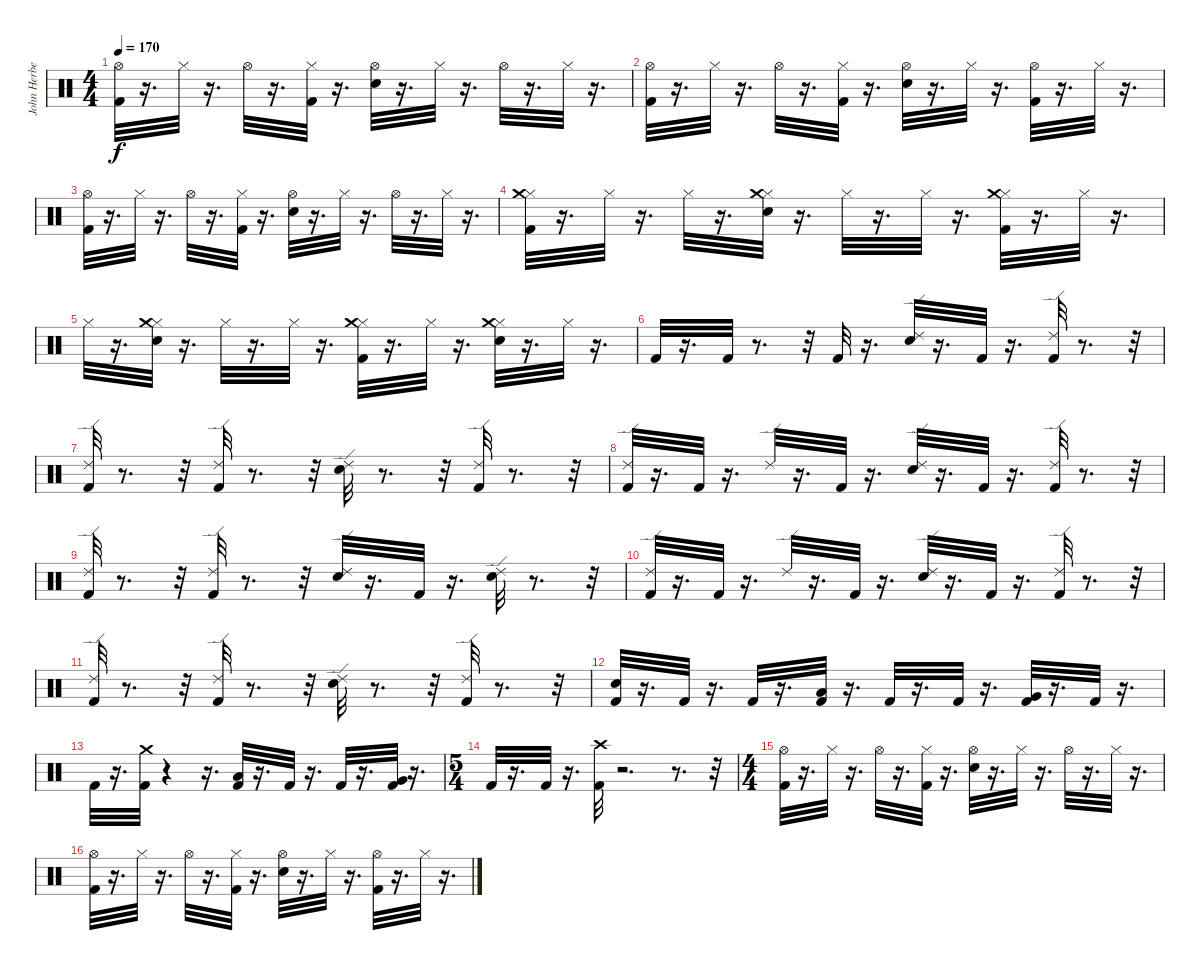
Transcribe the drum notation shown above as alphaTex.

\track ("John Herbert" "John Herbe") {instrument percussion}
\staff {score}
\articulation defaults
\ts (4 4)
\tempo 170
\clef neutral
\ks c
("Kick (hit) 2" "Hi-Hat (open)").32{dy f} r.16{d} "Hi-Hat (closed)".32 r.16{d} "Hi-Hat (open)".32 r.16{d} ("Kick (hit) 2" "Hi-Hat (closed)").32 r.16{d} ("Snare (hit) 2" "Hi-Hat (open)").32 r.16{d} "Hi-Hat (closed)".32 r.16{d} "Hi-Hat (open)".32 r.16{d} "Hi-Hat (closed)".32 r.16{d} |
("Hi-Hat (open)" "Kick (hit) 2").32 r.16{d} "Hi-Hat (closed)".32 r.16{d} "Hi-Hat (open)".32 r.16{d} ("Hi-Hat (closed)" "Kick (hit) 2").32 r.16{d} ("Snare (hit) 2" "Hi-Hat (open)").32 r.16{d} "Hi-Hat (closed)".32 r.16{d} ("Kick (hit) 2" "Hi-Hat (open)").32 r.16{d} "Hi-Hat (closed)".32 r.16{d} |
("Kick (hit) 2" "Hi-Hat (open)").32 r.16{d} "Hi-Hat (closed)".32 r.16{d} "Hi-Hat (open)".32 r.16{d} ("Kick (hit) 2" "Hi-Hat (closed)").32 r.16{d} ("Snare (hit) 2" "Hi-Hat (open)").32 r.16{d} "Hi-Hat (closed)".32 r.16{d} "Hi-Hat (open)".32 r.16{d} "Hi-Hat (closed)".32 r.16{d} |
("Hi-Hat (closed)" "Kick (hit) 2" "Crash medium (hit)").32 r.16{d} "Hi-Hat (closed)".32 r.16{d} "Hi-Hat (closed)".32 r.16{d} ("Hi-Hat (closed)" "Snare (hit) 2" "Crash medium (hit)").32 r.16{d} "Hi-Hat (closed)".32 r.16{d} "Hi-Hat (closed)".32 r.16{d} ("Hi-Hat (closed)" "Kick (hit) 2" "Crash medium (hit)").32 r.16{d} "Hi-Hat (closed)".32 r.16{d} |
"Hi-Hat (closed)".32 r.16{d} ("Hi-Hat (closed)" "Crash medium (hit)" "Snare (hit) 2").32 r.16{d} "Hi-Hat (closed)".32 r.16{d} "Hi-Hat (closed)".32 r.16{d} ("Hi-Hat (closed)" "Crash medium (hit)" "Kick (hit) 2").32 r.16{d} "Hi-Hat (closed)".32 r.16{d} ("Hi-Hat (closed)" "Snare (hit) 2" "Crash medium (hit)").32 r.16{d} "Hi-Hat (closed)".32 r.16{d} |
"Kick (hit) 2".32 r.16{d} "Kick (hit) 2".32 r.8{d} r.32 "Kick (hit) 2".32 r.16{d} ("Ride (edge) 2" "Snare (hit) 2").32 r.16{d} "Kick (hit) 2".32 r.16{d} ("Ride (edge) 2" "Kick (hit) 2").32 r.8{d} r.32 |
("Ride (edge) 2" "Kick (hit) 2").32 r.8{d} r.32 ("Ride (edge) 2" "Kick (hit) 2").32 r.8{d} r.32 ("Ride (edge) 2" "Snare (hit) 2").32 r.8{d} r.32 ("Kick (hit) 2" "Ride (edge) 2").32 r.8{d} r.32 |
("Ride (edge) 2" "Kick (hit) 2").32 r.16{d} "Kick (hit) 2".32 r.16{d} "Ride (edge) 2".32 r.16{d} "Kick (hit) 2".32 r.16{d} ("Ride (edge) 2" "Snare (hit) 2").32 r.16{d} "Kick (hit) 2".32 r.16{d} ("Ride (edge) 2" "Kick (hit) 2").32 r.8{d} r.32 |
("Ride (edge) 2" "Kick (hit) 2").32 r.8{d} r.32 ("Kick (hit) 2" "Ride (edge) 2").32 r.8{d} r.32 ("Snare (hit) 2" "Ride (edge) 2").32 r.16{d} "Kick (hit) 2".32 r.16{d} ("Snare (hit) 2" "Ride (edge) 2").32 r.8{d} r.32 |
("Ride (edge) 2" "Kick (hit) 2").32 r.16{d} "Kick (hit) 2".32 r.16{d} "Ride (edge) 2".32 r.16{d} "Kick (hit) 2".32 r.16{d} ("Ride (edge) 2" "Snare (hit) 2").32 r.16{d} "Kick (hit) 2".32 r.16{d} ("Ride (edge) 2" "Kick (hit) 2").32 r.8{d} r.32 |
("Ride (edge) 2" "Kick (hit) 2").32 r.8{d} r.32 ("Ride (edge) 2" "Kick (hit) 2").32 r.8{d} r.32 ("Ride (edge) 2" "Snare (hit) 2").32 r.8{d} r.32 ("Kick (hit) 2" "Ride (edge) 2").32 r.8{d} r.32 |
("Snare (hit) 2" "Kick (hit) 2").32 r.16{d} "Kick (hit) 2".32 r.16{d} "Kick (hit) 2".32 r.16{d} ("Low Tom (hit)" "Kick (hit) 2").32 r.16{d} "Kick (hit) 2".32 r.16{d} "Kick (hit) 2".32 r.16{d} ("Very Low Tom (hit)" "Kick (hit) 2").32 r.16{d} "Kick (hit) 2".32 r.16{d} |
"Kick (hit) 2".32 r.16{d} ("Crash medium (hit)" "Kick (hit) 2").32 r.4 r.16{d} ("Low Tom (hit)" "Kick (hit) 2").32 r.16{d} "Kick (hit) 2".32 r.16{d} "Kick (hit) 2".32 r.16{d} ("Very Low Tom (hit)" "Kick (hit) 2").32 r.16{d} |
\ts (5 4)
"Kick (hit) 2".32 r.16{d} "Kick (hit) 2".32 r.16{d} ("Crash high (hit)" "Kick (hit) 2").32 r.2{d} r.8{d} r.32 |
\ts (4 4)
("Kick (hit) 2" "Hi-Hat (open)").32 r.16{d} "Hi-Hat (closed)".32 r.16{d} "Hi-Hat (open)".32 r.16{d} ("Kick (hit) 2" "Hi-Hat (closed)").32 r.16{d} ("Snare (hit) 2" "Hi-Hat (open)").32 r.16{d} "Hi-Hat (closed)".32 r.16{d} "Hi-Hat (open)".32 r.16{d} "Hi-Hat (closed)".32 r.16{d} |
("Hi-Hat (open)" "Kick (hit) 2").32 r.16{d} "Hi-Hat (closed)".32 r.16{d} "Hi-Hat (open)".32 r.16{d} ("Hi-Hat (closed)" "Kick (hit) 2").32 r.16{d} ("Snare (hit) 2" "Hi-Hat (open)").32 r.16{d} "Hi-Hat (closed)".32 r.16{d} ("Kick (hit) 2" "Hi-Hat (open)").32 r.16{d} "Hi-Hat (closed)".32 r.16{d}
